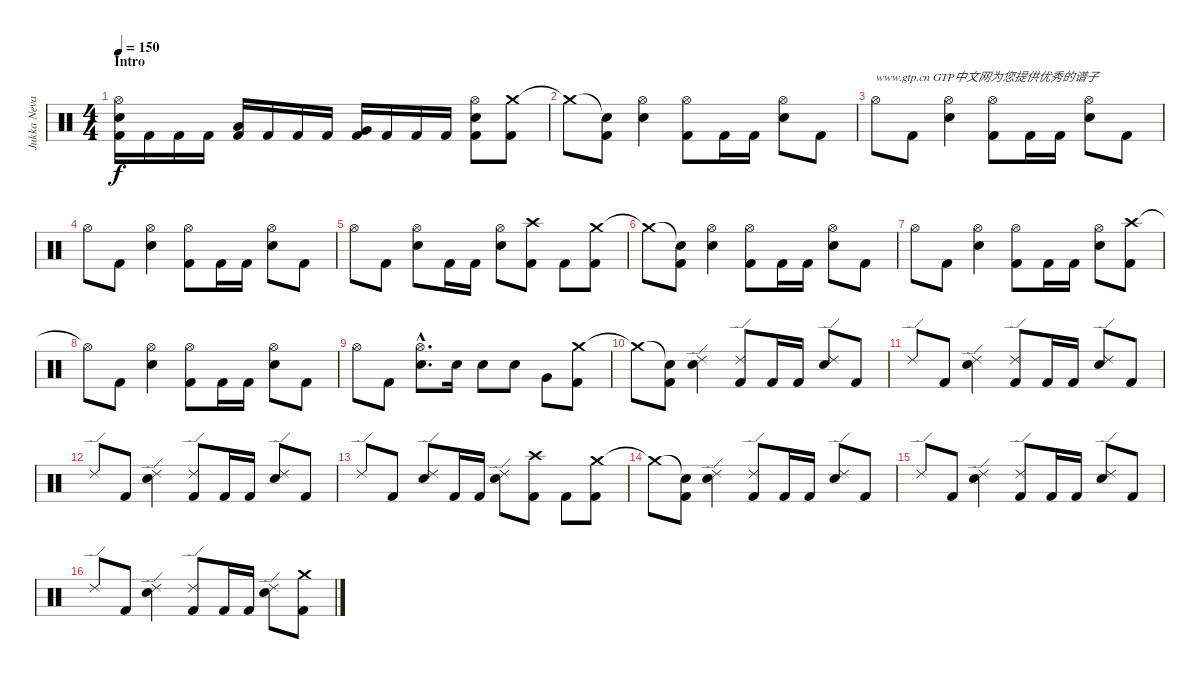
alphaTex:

\track ("Jukka Nevalainen" "Jukka Neva") {instrument percussion}
\staff {score}
\articulation defaults
\ts (4 4)
\section ("" "Intro")
\tempo 150
\clef neutral
\ks c
("Hi-Hat (open)" "Electric Snare (hit)" "Kick (hit) 2").16{dy f} "Kick (hit) 2".16 "Kick (hit) 2".16 "Kick (hit) 2".16 ("Low Tom (hit)" "Kick (hit) 2").16 "Kick (hit) 2".16 "Kick (hit) 2".16 "Kick (hit) 2".16 ("Very Low Tom (hit)" "Kick (hit) 2").16 "Kick (hit) 2".16 "Kick (hit) 2".16 "Kick (hit) 2".16 ("Hi-Hat (open)" "Electric Snare (hit)" "Kick (hit) 2").8 ("Crash medium (hit)" "Kick (hit) 2").8 |
"Crash medium (hit)"{t}.8 ("Snare (hit)"{t} "Kick (hit) 2").8 ("Hi-Hat (open)" "Electric Snare (hit)").4 ("Hi-Hat (open)" "Kick (hit) 2").8 "Kick (hit) 2".16 "Kick (hit) 2".16 ("Hi-Hat (open)" "Electric Snare (hit)").8 "Kick (hit) 2".8 |
"Hi-Hat (open)".8{txt "www.gtp.cn GTP中文网为您提供优秀的谱子"} "Kick (hit) 2".8 ("Hi-Hat (open)" "Electric Snare (hit)").4 ("Hi-Hat (open)" "Kick (hit) 2").8 "Kick (hit) 2".16 "Kick (hit) 2".16 ("Hi-Hat (open)" "Electric Snare (hit)").8 "Kick (hit) 2".8 |
"Hi-Hat (open)".8 "Kick (hit) 2".8 ("Hi-Hat (open)" "Electric Snare (hit)").4 ("Hi-Hat (open)" "Kick (hit) 2").8 "Kick (hit) 2".16 "Kick (hit) 2".16 ("Hi-Hat (open)" "Electric Snare (hit)").8 "Kick (hit) 2".8 |
"Hi-Hat (open)".8 "Kick (hit) 2".8 ("Hi-Hat (open)" "Electric Snare (hit)").8 "Kick (hit) 2".16 "Kick (hit) 2".16 ("Hi-Hat (open)" "Electric Snare (hit)").8 ("Crash high (hit)" "Kick (hit) 2").8 "Kick (hit) 2".8 ("Crash medium (hit)" "Kick (hit) 2").8 |
"Crash medium (hit)"{t}.8 ("Snare (hit)"{t} "Kick (hit) 2").8 ("Hi-Hat (open)" "Electric Snare (hit)").4 ("Hi-Hat (open)" "Kick (hit) 2").8 "Kick (hit) 2".16 "Kick (hit) 2".16 ("Hi-Hat (open)" "Electric Snare (hit)").8 "Kick (hit) 2".8 |
"Hi-Hat (open)".8 "Kick (hit) 2".8 ("Hi-Hat (open)" "Electric Snare (hit)").4 ("Hi-Hat (open)" "Kick (hit) 2").8 "Kick (hit) 2".16 "Kick (hit) 2".16 ("Hi-Hat (open)" "Electric Snare (hit)").8 ("Crash high (hit)" "Kick (hit) 2").8 |
"Hi-Hat (open)"{t}.8 "Kick (hit) 2".8 ("Hi-Hat (open)" "Electric Snare (hit)").4 ("Hi-Hat (open)" "Kick (hit) 2").8 "Kick (hit) 2".16 "Kick (hit) 2".16 ("Hi-Hat (open)" "Electric Snare (hit)").8 "Kick (hit) 2".8 |
"Hi-Hat (open)".8 "Kick (hit) 2".8 ("Hi-Hat (open)"{hac} "Electric Snare (hit)"{hac}).8{d} "Electric Snare (hit)".16 "Electric Snare (hit)".8 "Electric Snare (hit)".8 "Very Low Tom (hit)".8 ("Crash medium (hit)" "Kick (hit) 2").8 |
"Crash medium (hit)"{t}.8 ("Snare (hit)"{t} "Kick (hit) 2").8 ("Ride (edge) 2" "Electric Snare (hit)").4 ("Ride (edge) 2" "Kick (hit) 2").8 "Kick (hit) 2".16 "Kick (hit) 2".16 ("Ride (edge) 2" "Electric Snare (hit)").8 "Kick (hit) 2".8 |
"Ride (edge) 2".8 "Kick (hit) 2".8 ("Ride (edge) 2" "Electric Snare (hit)").4 ("Ride (edge) 2" "Kick (hit) 2").8 "Kick (hit) 2".16 "Kick (hit) 2".16 ("Ride (edge) 2" "Electric Snare (hit)").8 "Kick (hit) 2".8 |
"Ride (edge) 2".8 "Kick (hit) 2".8 ("Ride (edge) 2" "Electric Snare (hit)").4 ("Ride (edge) 2" "Kick (hit) 2").8 "Kick (hit) 2".16 "Kick (hit) 2".16 ("Ride (edge) 2" "Electric Snare (hit)").8 "Kick (hit) 2".8 |
"Ride (edge) 2".8 "Kick (hit) 2".8 ("Ride (edge) 2" "Electric Snare (hit)").8 "Kick (hit) 2".16 "Kick (hit) 2".16 ("Ride (edge) 2" "Electric Snare (hit)").8 ("Crash high (hit)" "Kick (hit) 2").8 "Kick (hit) 2".8 ("Crash medium (hit)" "Kick (hit) 2").8 |
"Crash medium (hit)"{t}.8 ("Snare (hit)"{t} "Kick (hit) 2").8 ("Ride (edge) 2" "Electric Snare (hit)").4 ("Ride (edge) 2" "Kick (hit) 2").8 "Kick (hit) 2".16 "Kick (hit) 2".16 ("Ride (edge) 2" "Electric Snare (hit)").8 "Kick (hit) 2".8 |
"Ride (edge) 2".8 "Kick (hit) 2".8 ("Ride (edge) 2" "Electric Snare (hit)").4 ("Ride (edge) 2" "Kick (hit) 2").8 "Kick (hit) 2".16 "Kick (hit) 2".16 ("Ride (edge) 2" "Electric Snare (hit)").8 "Kick (hit) 2".8 |
"Ride (edge) 2".8 "Kick (hit) 2".8 ("Ride (edge) 2" "Electric Snare (hit)").4 ("Ride (edge) 2" "Kick (hit) 2").8 "Kick (hit) 2".16 "Kick (hit) 2".16 ("Ride (edge) 2" "Electric Snare (hit)").8 ("Crash medium (hit)" "Kick (hit) 2").8
